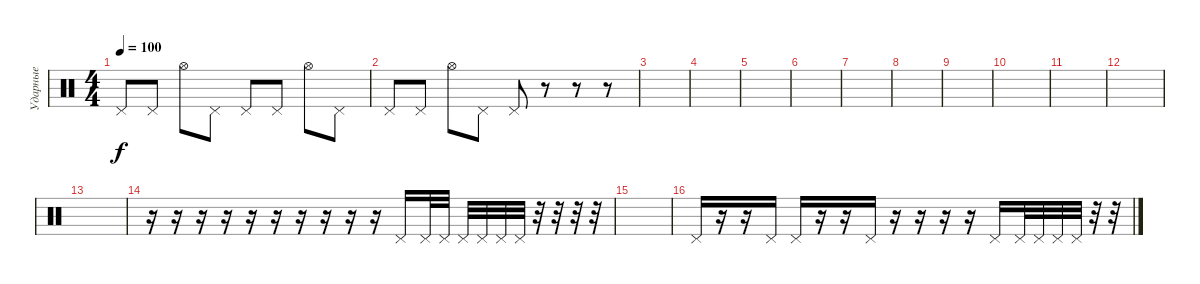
\track ("Ударные" "Ударные") {instrument percussion}
\staff {score}
\articulation defaults
\ts (4 4)
\tempo 100
\clef neutral
\ks c "Pedal Hi-Hat (hit)".8{dy f} "Pedal Hi-Hat (hit)".8 "Hi-Hat (open)".8 "Pedal Hi-Hat (hit)".8 "Pedal Hi-Hat (hit)".8 "Pedal Hi-Hat (hit)".8 "Hi-Hat (open)".8 "Pedal Hi-Hat (hit)".8
|
"Pedal Hi-Hat (hit)".8 "Pedal Hi-Hat (hit)".8 "Hi-Hat (open)".8 "Pedal Hi-Hat (hit)".8 "Pedal Hi-Hat (hit)".8 r.8 r.8 r.8 |
|
|
|
|
|
|
|
|
|
|
|
r.16 r.16 r.16 r.16 r.16 r.16 r.16 r.16 r.16 r.16 "Pedal Hi-Hat (hit)".16 "Pedal Hi-Hat (hit)".32 "Pedal Hi-Hat (hit)".32 "Pedal Hi-Hat (hit)".32 "Pedal Hi-Hat (hit)".32 "Pedal Hi-Hat (hit)".32 "Pedal Hi-Hat (hit)".32 r.32 r.32 r.32 r.32 |
|
"Pedal Hi-Hat (hit)".16 r.16 r.16 "Pedal Hi-Hat (hit)".16 "Pedal Hi-Hat (hit)".16 r.16 r.16 "Pedal Hi-Hat (hit)".16 r.16 r.16 r.16 r.16 "Pedal Hi-Hat (hit)".16 "Pedal Hi-Hat (hit)".32 "Pedal Hi-Hat (hit)".32 "Pedal Hi-Hat (hit)".32 "Pedal Hi-Hat (hit)".32 r.32 r.32
